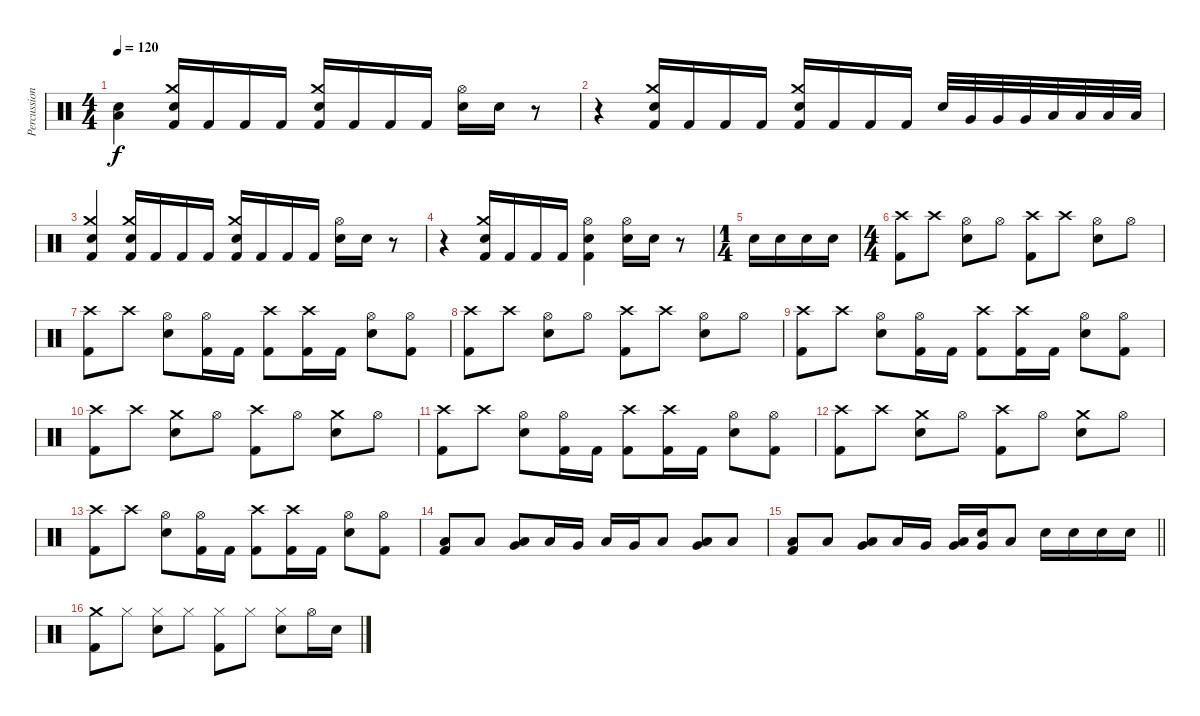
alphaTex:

\track ("Percussion" "Percussion") {instrument percussion}
\staff {score}
\articulation defaults
\ts (4 4)
\tempo 120
\clef neutral
\ks c
("Electric Snare (hit)" "Low Floor Tom (hit)").4{dy f} ("Crash medium (hit)" "Electric Snare (hit)" "Kick (hit) 2").16 "Kick (hit) 2".16 "Kick (hit) 2".16 "Kick (hit) 2".16 ("Crash medium (hit)" "Electric Snare (hit)" "Kick (hit) 2").16 "Kick (hit) 2".16 "Kick (hit) 2".16 "Kick (hit) 2".16 ("Hi-Hat (open)" "Electric Snare (hit)").16 "Electric Snare (hit)".16 r.8 |
r.4 ("Crash medium (hit)" "Electric Snare (hit)" "Kick (hit) 2").16 "Kick (hit) 2".16 "Kick (hit) 2".16 "Kick (hit) 2".16 ("Crash medium (hit)" "Electric Snare (hit)" "Kick (hit) 2").16 "Kick (hit) 2".16 "Kick (hit) 2".16 "Kick (hit) 2".16 "Electric Snare (hit)".32 "Very Low Tom (hit)".32 "Very Low Tom (hit)".32 "Very Low Tom (hit)".32 "Low Floor Tom (hit)".32 "Low Floor Tom (hit)".32 "Low Floor Tom (hit)".32 "Low Floor Tom (hit)".32 |
("Crash medium (hit)" "Electric Snare (hit)" "Kick (hit) 2").4 ("Crash medium (hit)" "Electric Snare (hit)" "Kick (hit) 2").16 "Kick (hit) 2".16 "Kick (hit) 2".16 "Kick (hit) 2".16 ("Crash medium (hit)" "Electric Snare (hit)" "Kick (hit) 2").16 "Kick (hit) 2".16 "Kick (hit) 2".16 "Kick (hit) 2".16 ("Hi-Hat (open)" "Electric Snare (hit)").16 "Electric Snare (hit)".16 r.8 |
r.4 ("Crash medium (hit)" "Electric Snare (hit)" "Kick (hit) 2").16 "Kick (hit) 2".16 "Kick (hit) 2".16 "Kick (hit) 2".16 ("Hi-Hat (open)" "Electric Snare (hit)" "Kick (hit) 2").4 ("Hi-Hat (open)" "Electric Snare (hit)").16 "Electric Snare (hit)".16 r.8 |
\ts (1 4)
"Electric Snare (hit)".16 "Electric Snare (hit)".16 "Electric Snare (hit)".16 "Electric Snare (hit)".16 |
\ts (4 4)
("Crash high (hit)" "Kick (hit) 2").8 "Crash high (hit)".8 ("Hi-Hat (open)" "Electric Snare (hit)").8 "Hi-Hat (open)".8 ("Crash high (hit)" "Kick (hit) 2").8 "Crash high (hit)".8 ("Hi-Hat (open)" "Electric Snare (hit)").8 "Hi-Hat (open)".8 |
("Crash high (hit)" "Kick (hit) 2").8 "Crash high (hit)".8 ("Hi-Hat (open)" "Electric Snare (hit)").8 ("Hi-Hat (open)" "Kick (hit) 2").16 "Kick (hit) 2".16 ("Crash high (hit)" "Kick (hit) 2").8 ("Crash high (hit)" "Kick (hit) 2").16 "Kick (hit) 2".16 ("Hi-Hat (open)" "Electric Snare (hit)").8 ("Hi-Hat (open)" "Kick (hit) 2").8 |
("Crash high (hit)" "Kick (hit) 2").8 "Crash high (hit)".8 ("Hi-Hat (open)" "Electric Snare (hit)").8 "Hi-Hat (open)".8 ("Crash high (hit)" "Kick (hit) 2").8 "Crash high (hit)".8 ("Hi-Hat (open)" "Electric Snare (hit)").8 "Hi-Hat (open)".8 |
("Crash high (hit)" "Kick (hit) 2").8 "Crash high (hit)".8 ("Hi-Hat (open)" "Electric Snare (hit)").8 ("Hi-Hat (open)" "Kick (hit) 2").16 "Kick (hit) 2".16 ("Crash high (hit)" "Kick (hit) 2").8 ("Crash high (hit)" "Kick (hit) 2").16 "Kick (hit) 2".16 ("Hi-Hat (open)" "Electric Snare (hit)").8 ("Hi-Hat (open)" "Kick (hit) 2").8 |
("Crash high (hit)" "Kick (hit) 2").8 "Crash high (hit)".8 ("Crash medium (hit)" "Electric Snare (hit)").8 "Hi-Hat (open)".8 ("Crash high (hit)" "Kick (hit) 2").8 "Hi-Hat (open)".8 ("Crash medium (hit)" "Electric Snare (hit)").8 "Hi-Hat (open)".8 |
("Crash high (hit)" "Kick (hit) 2").8 "Crash high (hit)".8 ("Hi-Hat (open)" "Electric Snare (hit)").8 ("Hi-Hat (open)" "Kick (hit) 2").16 "Kick (hit) 2".16 ("Crash high (hit)" "Kick (hit) 2").8 ("Crash high (hit)" "Kick (hit) 2").16 "Kick (hit) 2".16 ("Hi-Hat (open)" "Electric Snare (hit)").8 ("Hi-Hat (open)" "Kick (hit) 2").8 |
("Crash high (hit)" "Kick (hit) 2").8 "Crash high (hit)".8 ("Crash medium (hit)" "Electric Snare (hit)").8 "Hi-Hat (open)".8 ("Crash high (hit)" "Kick (hit) 2").8 "Hi-Hat (open)".8 ("Crash medium (hit)" "Electric Snare (hit)").8 "Hi-Hat (open)".8 |
("Crash high (hit)" "Kick (hit) 2").8 "Crash high (hit)".8 ("Hi-Hat (open)" "Electric Snare (hit)").8 ("Hi-Hat (open)" "Kick (hit) 2").16 "Kick (hit) 2".16 ("Crash high (hit)" "Kick (hit) 2").8 ("Crash high (hit)" "Kick (hit) 2").16 "Kick (hit) 2".16 ("Hi-Hat (open)" "Electric Snare (hit)").8 ("Hi-Hat (open)" "Kick (hit) 2").8 |
("Low Floor Tom (hit)" "Kick (hit) 2").8 "Low Floor Tom (hit)".8 ("Very Low Tom (hit)" "Low Floor Tom (hit)").8 "Low Floor Tom (hit)".16 "Very Low Tom (hit)".16 "Low Floor Tom (hit)".16 "Very Low Tom (hit)".16 "Low Floor Tom (hit)".8 ("Very Low Tom (hit)" "Low Floor Tom (hit)").8 "Low Floor Tom (hit)".8 |
\barLineRight lightlight
("Low Floor Tom (hit)" "Kick (hit) 2").8 "Low Floor Tom (hit)".8 ("Very Low Tom (hit)" "Low Floor Tom (hit)").8 "Low Floor Tom (hit)".16 "Very Low Tom (hit)".16 ("Very Low Tom (hit)" "Low Floor Tom (hit)").16 ("Hand Clap (hit)" "Very Low Tom (hit)").16 "Low Floor Tom (hit)".8 "Electric Snare (hit)".16 "Electric Snare (hit)".16 "Electric Snare (hit)".16 "Electric Snare (hit)".16 |
("Crash medium (hit)" "Kick (hit) 2").8 "Hi-Hat (closed)".8 ("Hi-Hat (closed)" "Electric Snare (hit)").8 "Hi-Hat (closed)".8 ("Hi-Hat (closed)" "Kick (hit) 2").8 "Hi-Hat (closed)".8 ("Hi-Hat (closed)" "Electric Snare (hit)").8 "Hi-Hat (open)".16 "Electric Snare (hit)".16
